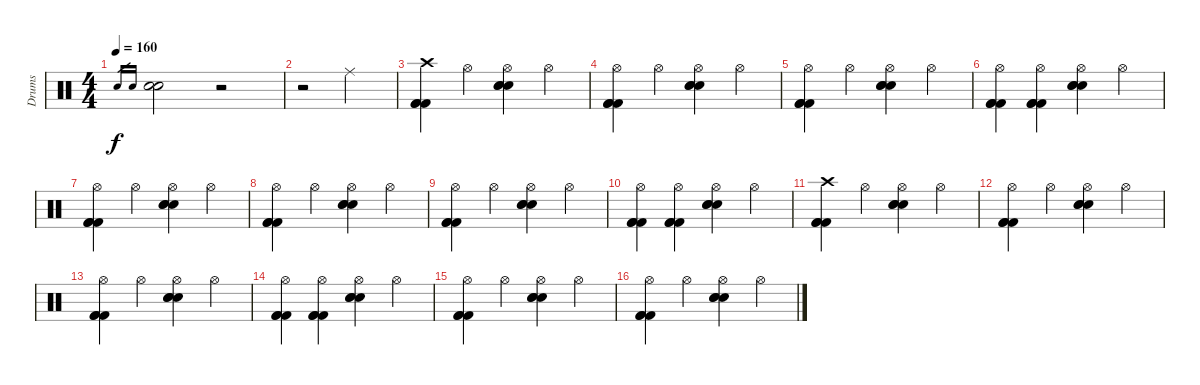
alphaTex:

\track ("Drums" "Drums") {instrument percussion}
\staff {score}
\articulation defaults
\ts (4 4)
\tempo 160
\clef neutral
\ks c "Electric Snare (hit)".16{gr dy f} "Electric Snare (hit)".16{gr}
("Electric Snare (hit)" "Electric Snare (hit)").2 r.2 |
r.2 "Ride (middle)".2 |
("Crash high (hit)" "Kick (hit) 2" "Kick (hit) 2" "Kick (hit) 2").4 "Hi-Hat (open)".4 ("Hi-Hat (open)" "Electric Snare (hit)" "Electric Snare (hit)" "Electric Snare (hit)").4 "Hi-Hat (open)".4 |
("Hi-Hat (open)" "Kick (hit) 2" "Kick (hit) 2" "Kick (hit) 2").4 "Hi-Hat (open)".4 ("Hi-Hat (open)" "Electric Snare (hit)" "Electric Snare (hit)" "Electric Snare (hit)").4 "Hi-Hat (open)".4 |
("Hi-Hat (open)" "Kick (hit) 2" "Kick (hit) 2" "Kick (hit) 2").4 "Hi-Hat (open)".4 ("Hi-Hat (open)" "Electric Snare (hit)" "Electric Snare (hit)" "Electric Snare (hit)").4 "Hi-Hat (open)".4 |
("Hi-Hat (open)" "Kick (hit) 2" "Kick (hit) 2" "Kick (hit) 2").4 ("Hi-Hat (open)" "Kick (hit) 2" "Kick (hit) 2" "Kick (hit) 2").4 ("Hi-Hat (open)" "Electric Snare (hit)" "Electric Snare (hit)" "Electric Snare (hit)").4 "Hi-Hat (open)".4 |
("Hi-Hat (open)" "Kick (hit) 2" "Kick (hit) 2" "Kick (hit) 2").4 "Hi-Hat (open)".4 ("Hi-Hat (open)" "Electric Snare (hit)" "Electric Snare (hit)" "Electric Snare (hit)").4 "Hi-Hat (open)".4 |
("Hi-Hat (open)" "Kick (hit) 2" "Kick (hit) 2" "Kick (hit) 2").4 "Hi-Hat (open)".4 ("Hi-Hat (open)" "Electric Snare (hit)" "Electric Snare (hit)" "Electric Snare (hit)").4 "Hi-Hat (open)".4 |
("Hi-Hat (open)" "Kick (hit) 2" "Kick (hit) 2" "Kick (hit) 2").4 "Hi-Hat (open)".4 ("Hi-Hat (open)" "Electric Snare (hit)" "Electric Snare (hit)" "Electric Snare (hit)").4 "Hi-Hat (open)".4 |
("Hi-Hat (open)" "Kick (hit) 2" "Kick (hit) 2" "Kick (hit) 2").4 ("Hi-Hat (open)" "Kick (hit) 2" "Kick (hit) 2" "Kick (hit) 2").4 ("Hi-Hat (open)" "Electric Snare (hit)" "Electric Snare (hit)" "Electric Snare (hit)").4 "Hi-Hat (open)".4 |
("Crash high (hit)" "Kick (hit) 2" "Kick (hit) 2" "Kick (hit) 2").4 "Hi-Hat (open)".4 ("Hi-Hat (open)" "Electric Snare (hit)" "Electric Snare (hit)" "Electric Snare (hit)").4 "Hi-Hat (open)".4 |
("Hi-Hat (open)" "Kick (hit) 2" "Kick (hit) 2" "Kick (hit) 2").4 "Hi-Hat (open)".4 ("Hi-Hat (open)" "Electric Snare (hit)" "Electric Snare (hit)" "Electric Snare (hit)").4 "Hi-Hat (open)".4 |
("Hi-Hat (open)" "Kick (hit) 2" "Kick (hit) 2" "Kick (hit) 2").4 "Hi-Hat (open)".4 ("Hi-Hat (open)" "Electric Snare (hit)" "Electric Snare (hit)" "Electric Snare (hit)").4 "Hi-Hat (open)".4 |
("Hi-Hat (open)" "Kick (hit) 2" "Kick (hit) 2" "Kick (hit) 2").4 ("Hi-Hat (open)" "Kick (hit) 2" "Kick (hit) 2" "Kick (hit) 2").4 ("Hi-Hat (open)" "Electric Snare (hit)" "Electric Snare (hit)" "Electric Snare (hit)").4 "Hi-Hat (open)".4 |
("Hi-Hat (open)" "Kick (hit) 2" "Kick (hit) 2" "Kick (hit) 2").4 "Hi-Hat (open)".4 ("Hi-Hat (open)" "Electric Snare (hit)" "Electric Snare (hit)" "Electric Snare (hit)").4 "Hi-Hat (open)".4 |
("Hi-Hat (open)" "Kick (hit) 2" "Kick (hit) 2" "Kick (hit) 2").4 "Hi-Hat (open)".4 ("Hi-Hat (open)" "Electric Snare (hit)" "Electric Snare (hit)" "Electric Snare (hit)").4 "Hi-Hat (open)".4
